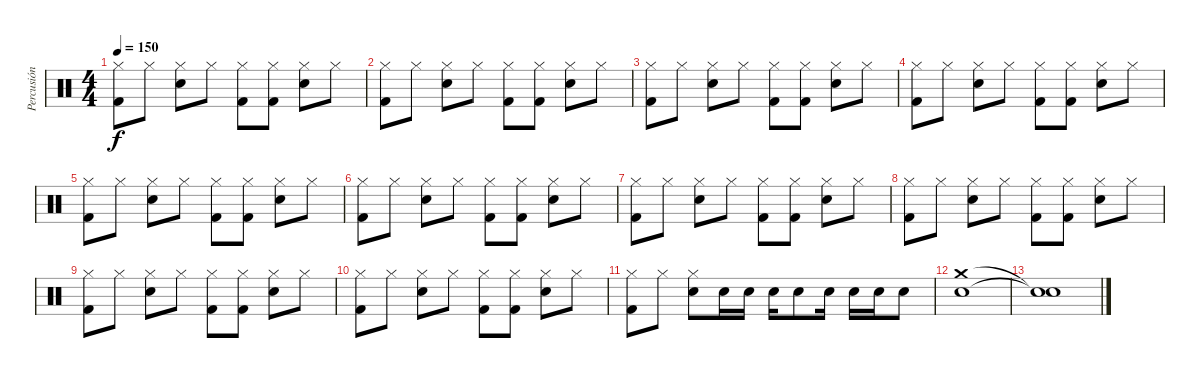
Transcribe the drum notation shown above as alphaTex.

\track ("Percusión" "Percusión") {instrument percussion}
\staff {score}
\articulation defaults
\ts (4 4)
\tempo 150
\clef neutral
\ks c
("Hi-Hat (closed)" "Kick (hit) 2").8{dy f} "Hi-Hat (closed)".8 ("Hi-Hat (closed)" "Snare (hit) 2").8 "Hi-Hat (closed)".8 ("Hi-Hat (closed)" "Kick (hit) 2").8 ("Hi-Hat (closed)" "Kick (hit) 2").8 ("Hi-Hat (closed)" "Snare (hit) 2").8 "Hi-Hat (closed)".8 |
("Hi-Hat (closed)" "Kick (hit) 2").8 "Hi-Hat (closed)".8 ("Hi-Hat (closed)" "Snare (hit) 2").8 "Hi-Hat (closed)".8 ("Hi-Hat (closed)" "Kick (hit) 2").8 ("Hi-Hat (closed)" "Kick (hit) 2").8 ("Hi-Hat (closed)" "Snare (hit) 2").8 "Hi-Hat (closed)".8 |
("Hi-Hat (closed)" "Kick (hit) 2").8 "Hi-Hat (closed)".8 ("Hi-Hat (closed)" "Snare (hit) 2").8 "Hi-Hat (closed)".8 ("Hi-Hat (closed)" "Kick (hit) 2").8 ("Hi-Hat (closed)" "Kick (hit) 2").8 ("Hi-Hat (closed)" "Snare (hit) 2").8 "Hi-Hat (closed)".8 |
("Hi-Hat (closed)" "Kick (hit) 2").8 "Hi-Hat (closed)".8 ("Hi-Hat (closed)" "Snare (hit) 2").8 "Hi-Hat (closed)".8 ("Hi-Hat (closed)" "Kick (hit) 2").8 ("Hi-Hat (closed)" "Kick (hit) 2").8 ("Hi-Hat (closed)" "Snare (hit) 2").8 "Hi-Hat (closed)".8 |
("Hi-Hat (closed)" "Kick (hit) 2").8 "Hi-Hat (closed)".8 ("Hi-Hat (closed)" "Snare (hit) 2").8 "Hi-Hat (closed)".8 ("Hi-Hat (closed)" "Kick (hit) 2").8 ("Hi-Hat (closed)" "Kick (hit) 2").8 ("Hi-Hat (closed)" "Snare (hit) 2").8 "Hi-Hat (closed)".8 |
("Hi-Hat (closed)" "Kick (hit) 2").8 "Hi-Hat (closed)".8 ("Hi-Hat (closed)" "Snare (hit) 2").8 "Hi-Hat (closed)".8 ("Hi-Hat (closed)" "Kick (hit) 2").8 ("Hi-Hat (closed)" "Kick (hit) 2").8 ("Hi-Hat (closed)" "Snare (hit) 2").8 "Hi-Hat (closed)".8 |
("Hi-Hat (closed)" "Kick (hit) 2").8 "Hi-Hat (closed)".8 ("Hi-Hat (closed)" "Snare (hit) 2").8 "Hi-Hat (closed)".8 ("Hi-Hat (closed)" "Kick (hit) 2").8 ("Hi-Hat (closed)" "Kick (hit) 2").8 ("Hi-Hat (closed)" "Snare (hit) 2").8 "Hi-Hat (closed)".8 |
("Hi-Hat (closed)" "Kick (hit) 2").8 "Hi-Hat (closed)".8 ("Hi-Hat (closed)" "Snare (hit) 2").8 "Hi-Hat (closed)".8 ("Hi-Hat (closed)" "Kick (hit) 2").8 ("Hi-Hat (closed)" "Kick (hit) 2").8 ("Hi-Hat (closed)" "Snare (hit) 2").8 "Hi-Hat (closed)".8 |
("Hi-Hat (closed)" "Kick (hit) 2").8 "Hi-Hat (closed)".8 ("Hi-Hat (closed)" "Snare (hit) 2").8 "Hi-Hat (closed)".8 ("Hi-Hat (closed)" "Kick (hit) 2").8 ("Hi-Hat (closed)" "Kick (hit) 2").8 ("Hi-Hat (closed)" "Snare (hit) 2").8 "Hi-Hat (closed)".8 |
("Hi-Hat (closed)" "Kick (hit) 2").8 "Hi-Hat (closed)".8 ("Hi-Hat (closed)" "Snare (hit) 2").8 "Hi-Hat (closed)".8 ("Hi-Hat (closed)" "Kick (hit) 2").8 ("Hi-Hat (closed)" "Kick (hit) 2").8 ("Hi-Hat (closed)" "Snare (hit) 2").8 "Hi-Hat (closed)".8 |
("Hi-Hat (closed)" "Kick (hit) 2").8 "Hi-Hat (closed)".8 ("Hi-Hat (closed)" "Snare (hit) 2").8 "Snare (hit) 2".16 "Snare (hit) 2".16 "Snare (hit) 2".16 "Snare (hit) 2".8 "Snare (hit) 2".16 "Snare (hit) 2".16 "Snare (hit) 2".16 "Snare (hit) 2".8 |
("Crash medium (hit)" "Snare (hit) 2").1 |
("Snare (hit)"{t} "Snare (hit)"{t}).1
